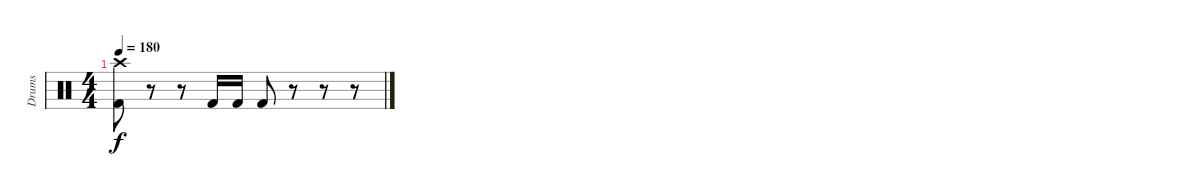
\track ("Drums" "Drums") {instrument percussion}
\staff {score}
\articulation defaults
\ts (4 4)
\tempo 180
\clef neutral
\ks c
("Crash high (hit)" "Kick (hit) 2").8{dy f} r.8 r.8 "Kick (hit) 2".16 "Kick (hit) 2".16 "Kick (hit) 2".8 r.8 r.8 r.8
